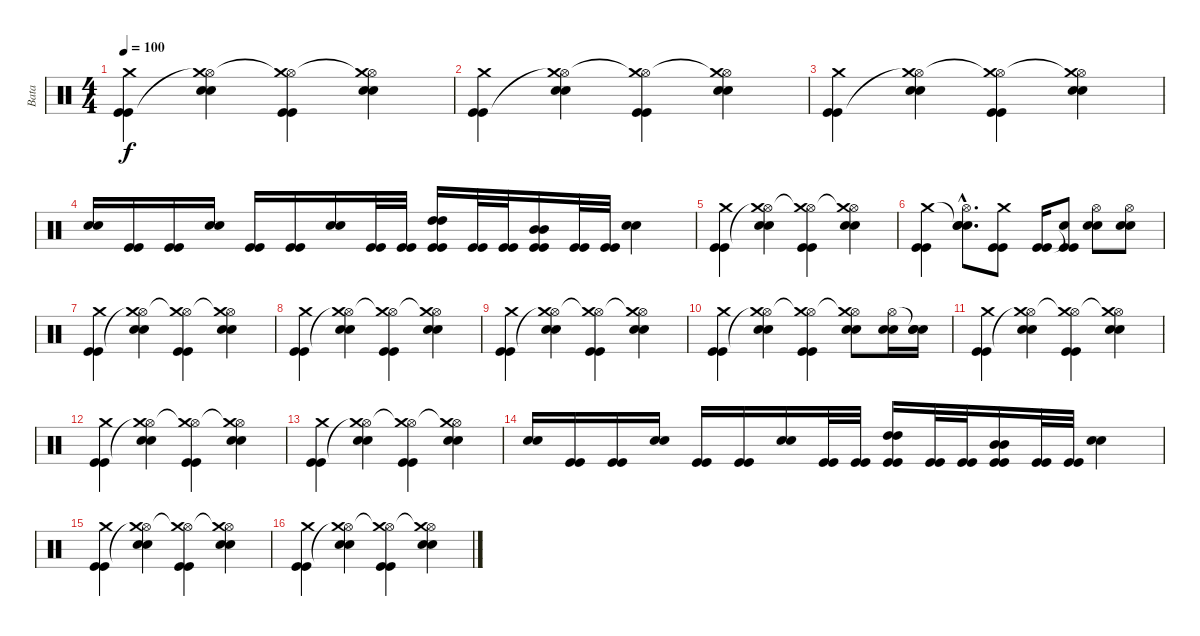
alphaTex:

\track ("Bata" "Bata") {instrument percussion}
\staff {score}
\articulation defaults
\ts (4 4)
\tempo 100
\clef neutral
\ks c
("Crash medium (hit)" "Kick (hit)" "Kick (hit)").4{dy f} ("Hi-Hat (open)" "Crash medium (hit)"{t} "Electric Snare (hit)" "Electric Snare (hit)").4 ("Hi-Hat (open)" "Crash medium (hit)"{t} "Kick (hit)" "Kick (hit)").4 ("Hi-Hat (open)" "Crash medium (hit)"{t} "Electric Snare (hit)" "Electric Snare (hit)").4 |
("Crash medium (hit)" "Kick (hit)" "Kick (hit)").4 ("Hi-Hat (open)" "Crash medium (hit)"{t} "Electric Snare (hit)" "Electric Snare (hit)").4 ("Hi-Hat (open)" "Crash medium (hit)"{t} "Kick (hit)" "Kick (hit)").4 ("Hi-Hat (open)" "Crash medium (hit)"{t} "Electric Snare (hit)" "Electric Snare (hit)").4 |
("Crash medium (hit)" "Kick (hit)" "Kick (hit)").4 ("Hi-Hat (open)" "Crash medium (hit)"{t} "Electric Snare (hit)" "Electric Snare (hit)").4 ("Hi-Hat (open)" "Crash medium (hit)"{t} "Kick (hit)" "Kick (hit)").4 ("Hi-Hat (open)" "Crash medium (hit)"{t} "Electric Snare (hit)" "Electric Snare (hit)").4 |
("Electric Snare (hit)" "Electric Snare (hit)").16 ("Kick (hit)" "Kick (hit)").16 ("Kick (hit)" "Kick (hit)").16 ("Electric Snare (hit)" "Electric Snare (hit)").16 ("Kick (hit)" "Kick (hit)").16 ("Kick (hit)" "Kick (hit)").16 ("Electric Snare (hit)" "Electric Snare (hit)").16 ("Kick (hit)" "Kick (hit)").32 ("Kick (hit)" "Kick (hit)").32 ("High Tom (hit)" "High Tom (hit)" "Kick (hit)" "Kick (hit)").16 ("Kick (hit)" "Kick (hit)").32 ("Kick (hit)" "Kick (hit)").32 ("Mid Tom (hit)" "Mid Tom (hit)" "Kick (hit)" "Kick (hit)").16 ("Kick (hit)" "Kick (hit)").32 ("Kick (hit)" "Kick (hit)").32 ("Electric Snare (hit)" "Electric Snare (hit)").4 |
("Crash medium (hit)" "Kick (hit)" "Kick (hit)").4 ("Hi-Hat (open)" "Crash medium (hit)"{t} "Electric Snare (hit)" "Electric Snare (hit)").4 ("Hi-Hat (open)" "Crash medium (hit)"{t} "Kick (hit)" "Kick (hit)").4 ("Hi-Hat (open)" "Crash medium (hit)"{t} "Electric Snare (hit)" "Electric Snare (hit)").4 |
("Crash medium (hit)" "Kick (hit)" "Kick (hit)").4 ("Snare (hit)"{hac t} "Hi-Hat (open)"{hac} "Electric Snare (hit)"{hac} "Electric Snare (hit)"{hac}).8{d} ("Crash medium (hit)" "Kick (hit)" "Kick (hit)").8 ("Kick (hit)" "Kick (hit)").16 ("Snare (hit)"{t} "Kick (hit)" "Kick (hit)").8 ("Hi-Hat (open)" "Electric Snare (hit)" "Electric Snare (hit)").8 ("Hi-Hat (open)" "Electric Snare (hit)" "Electric Snare (hit)").8 |
("Crash medium (hit)" "Kick (hit)" "Kick (hit)").4 ("Hi-Hat (open)" "Crash medium (hit)"{t} "Electric Snare (hit)" "Electric Snare (hit)").4 ("Hi-Hat (open)" "Crash medium (hit)"{t} "Kick (hit)" "Kick (hit)").4 ("Hi-Hat (open)" "Crash medium (hit)"{t} "Electric Snare (hit)" "Electric Snare (hit)").4 |
("Crash medium (hit)" "Kick (hit)" "Kick (hit)").4 ("Hi-Hat (open)" "Crash medium (hit)"{t} "Electric Snare (hit)" "Electric Snare (hit)").4 ("Hi-Hat (open)" "Crash medium (hit)"{t} "Kick (hit)" "Kick (hit)").4 ("Hi-Hat (open)" "Crash medium (hit)"{t} "Electric Snare (hit)" "Electric Snare (hit)").4 |
("Crash medium (hit)" "Kick (hit)" "Kick (hit)").4 ("Hi-Hat (open)" "Crash medium (hit)"{t} "Electric Snare (hit)" "Electric Snare (hit)").4 ("Hi-Hat (open)" "Crash medium (hit)"{t} "Kick (hit)" "Kick (hit)").4 ("Hi-Hat (open)" "Crash medium (hit)"{t} "Electric Snare (hit)" "Electric Snare (hit)").4 |
("Crash medium (hit)" "Kick (hit)" "Kick (hit)").4 ("Hi-Hat (open)" "Crash medium (hit)"{t} "Electric Snare (hit)" "Electric Snare (hit)").4 ("Hi-Hat (open)" "Crash medium (hit)"{t} "Kick (hit)" "Kick (hit)").4 ("Hi-Hat (open)" "Crash medium (hit)"{t} "Electric Snare (hit)" "Electric Snare (hit)").8 ("Hi-Hat (open)" "Electric Snare (hit)" "Electric Snare (hit)").16 ("Snare (hit)"{t} "Electric Snare (hit)" "Electric Snare (hit)").16 |
("Crash medium (hit)" "Kick (hit)" "Kick (hit)").4 ("Hi-Hat (open)" "Crash medium (hit)"{t} "Electric Snare (hit)" "Electric Snare (hit)").4 ("Hi-Hat (open)" "Crash medium (hit)"{t} "Kick (hit)" "Kick (hit)").4 ("Hi-Hat (open)" "Crash medium (hit)"{t} "Electric Snare (hit)" "Electric Snare (hit)").4 |
("Crash medium (hit)" "Kick (hit)" "Kick (hit)").4 ("Hi-Hat (open)" "Crash medium (hit)"{t} "Electric Snare (hit)" "Electric Snare (hit)").4 ("Hi-Hat (open)" "Crash medium (hit)"{t} "Kick (hit)" "Kick (hit)").4 ("Hi-Hat (open)" "Crash medium (hit)"{t} "Electric Snare (hit)" "Electric Snare (hit)").4 |
("Crash medium (hit)" "Kick (hit)" "Kick (hit)").4 ("Hi-Hat (open)" "Crash medium (hit)"{t} "Electric Snare (hit)" "Electric Snare (hit)").4 ("Hi-Hat (open)" "Crash medium (hit)"{t} "Kick (hit)" "Kick (hit)").4 ("Hi-Hat (open)" "Crash medium (hit)"{t} "Electric Snare (hit)" "Electric Snare (hit)").4 |
("Electric Snare (hit)" "Electric Snare (hit)").16 ("Kick (hit)" "Kick (hit)").16 ("Kick (hit)" "Kick (hit)").16 ("Electric Snare (hit)" "Electric Snare (hit)").16 ("Kick (hit)" "Kick (hit)").16 ("Kick (hit)" "Kick (hit)").16 ("Electric Snare (hit)" "Electric Snare (hit)").16 ("Kick (hit)" "Kick (hit)").32 ("Kick (hit)" "Kick (hit)").32 ("High Tom (hit)" "High Tom (hit)" "Kick (hit)" "Kick (hit)").16 ("Kick (hit)" "Kick (hit)").32 ("Kick (hit)" "Kick (hit)").32 ("Mid Tom (hit)" "Mid Tom (hit)" "Kick (hit)" "Kick (hit)").16 ("Kick (hit)" "Kick (hit)").32 ("Kick (hit)" "Kick (hit)").32 ("Electric Snare (hit)" "Electric Snare (hit)").4 |
("Crash medium (hit)" "Kick (hit)" "Kick (hit)").4 ("Hi-Hat (open)" "Crash medium (hit)"{t} "Electric Snare (hit)" "Electric Snare (hit)").4 ("Hi-Hat (open)" "Crash medium (hit)"{t} "Kick (hit)" "Kick (hit)").4 ("Hi-Hat (open)" "Crash medium (hit)"{t} "Electric Snare (hit)" "Electric Snare (hit)").4 |
("Crash medium (hit)" "Kick (hit)" "Kick (hit)").4 ("Hi-Hat (open)" "Crash medium (hit)"{t} "Electric Snare (hit)" "Electric Snare (hit)").4 ("Hi-Hat (open)" "Crash medium (hit)"{t} "Kick (hit)" "Kick (hit)").4 ("Hi-Hat (open)" "Crash medium (hit)"{t} "Electric Snare (hit)" "Electric Snare (hit)").4
